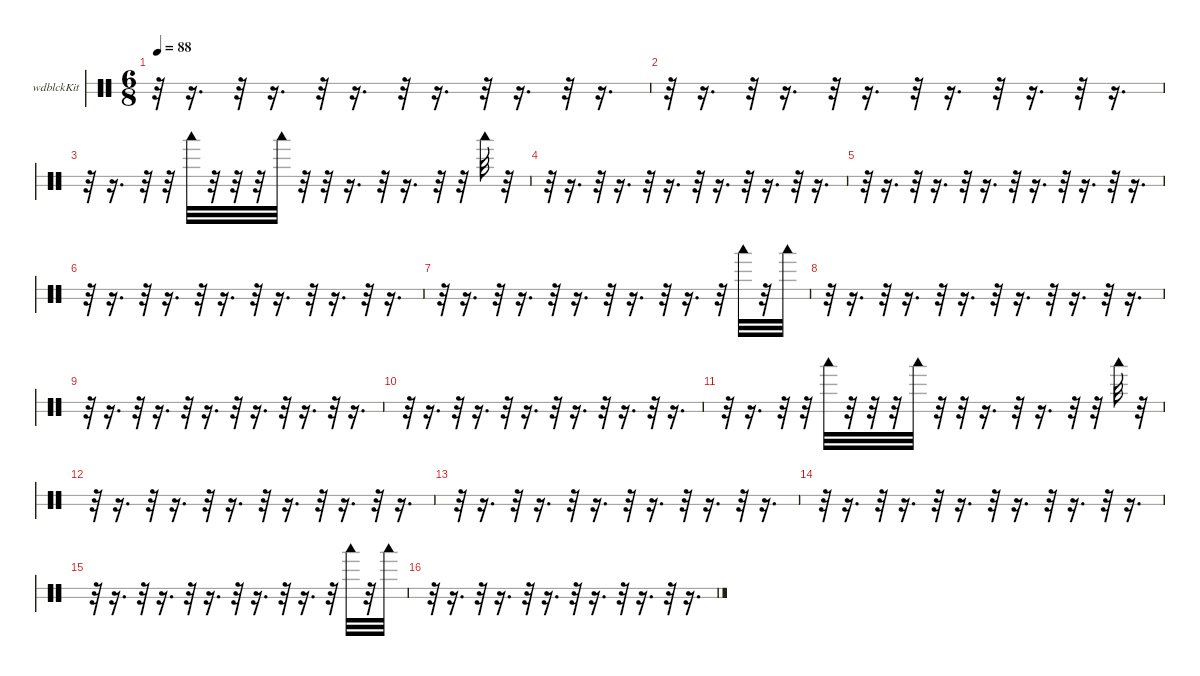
\hideDynamics
\bracketExtendMode nobrackets
\firstSystemTrackNameOrientation horizontal
\otherSystemsTrackNameOrientation horizontal
\track ("Woodblock" "wdblckKit") {instrument percussion}
\staff {score 2}
\articulation defaults
\ts (6 8)
\tempo 88
\clef neutral
\ks c
r.32{dy f} r.16{d} r.32 r.16{d} r.32 r.16{d} r.32 r.16{d} r.32 r.16{d} r.32 r.16{d} |
r.32 r.16{d} r.32 r.16{d} r.32 r.16{d} r.32 r.16{d} r.32 r.16{d} r.32 r.16{d} |
r.32 r.16{d} r.32 r.32 "Woodblock low (hit)".32 r.32 r.32 r.32 "Woodblock low (hit)".32 r.32 r.32 r.16{d} r.32 r.16{d} r.32 r.32 "Woodblock low (hit)".32{dy mf} r.32 |
r.32 r.16{d} r.32 r.16{d} r.32 r.16{d} r.32 r.16{d} r.32 r.16{d} r.32 r.16{d} |
r.32 r.16{d} r.32 r.16{d} r.32 r.16{d} r.32 r.16{d} r.32 r.16{d} r.32 r.16{d} |
r.32 r.16{d} r.32 r.16{d} r.32 r.16{d} r.32 r.16{d} r.32 r.16{d} r.32 r.16{d} |
r.32 r.16{d} r.32 r.16{d} r.32 r.16{d} r.32 r.16{d} r.32 r.16{d} r.32 "Woodblock low (hit)".32 r.32 "Woodblock low (hit)".32{dy f} |
r.32 r.16{d} r.32 r.16{d} r.32 r.16{d} r.32 r.16{d} r.32 r.16{d} r.32 r.16{d} |
r.32 r.16{d} r.32 r.16{d} r.32 r.16{d} r.32 r.16{d} r.32 r.16{d} r.32 r.16{d} |
r.32 r.16{d} r.32 r.16{d} r.32 r.16{d} r.32 r.16{d} r.32 r.16{d} r.32 r.16{d} |
r.32 r.16{d} r.32 r.32 "Woodblock low (hit)".32 r.32 r.32 r.32 "Woodblock low (hit)".32 r.32 r.32 r.16{d} r.32 r.16{d} r.32 r.32 "Woodblock low (hit)".32{dy mf} r.32 |
r.32 r.16{d} r.32 r.16{d} r.32 r.16{d} r.32 r.16{d} r.32 r.16{d} r.32 r.16{d} |
r.32 r.16{d} r.32 r.16{d} r.32 r.16{d} r.32 r.16{d} r.32 r.16{d} r.32 r.16{d} |
r.32 r.16{d} r.32 r.16{d} r.32 r.16{d} r.32 r.16{d} r.32 r.16{d} r.32 r.16{d} |
r.32 r.16{d} r.32 r.16{d} r.32 r.16{d} r.32 r.16{d} r.32 r.16{d} r.32 "Woodblock low (hit)".32 r.32 "Woodblock low (hit)".32{dy f} |
r.32 r.16{d} r.32 r.16{d} r.32 r.16{d} r.32 r.16{d} r.32 r.16{d} r.32 r.16{d}
